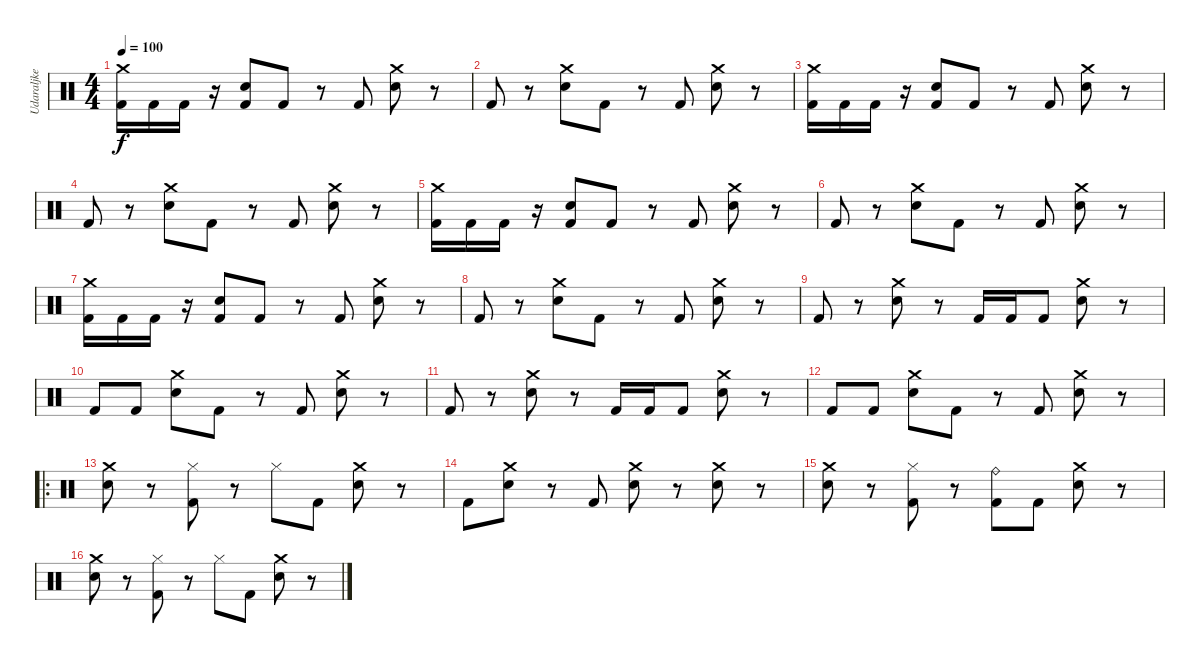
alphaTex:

\track ("Udaraljke" "Udaraljke") {instrument percussion}
\staff {score}
\articulation defaults
\ts (4 4)
\tempo 100
\clef neutral
\ks c
("Crash medium (hit)" "Kick (hit) 2").16{dy f} "Kick (hit) 2".16 "Kick (hit) 2".16 r.16 ("Snare (hit) 2" "Kick (hit) 2").8 "Kick (hit) 2".8 r.8 "Kick (hit) 2".8 ("Crash medium (hit)" "Snare (hit) 2").8 r.8 |
"Kick (hit) 2".8 r.8 ("Crash medium (hit)" "Snare (hit) 2").8 "Kick (hit) 2".8 r.8 "Kick (hit) 2".8 ("Crash medium (hit)" "Snare (hit) 2").8 r.8 |
("Crash medium (hit)" "Kick (hit) 2").16 "Kick (hit) 2".16 "Kick (hit) 2".16 r.16 ("Snare (hit) 2" "Kick (hit) 2").8 "Kick (hit) 2".8 r.8 "Kick (hit) 2".8 ("Crash medium (hit)" "Snare (hit) 2").8 r.8 |
"Kick (hit) 2".8 r.8 ("Crash medium (hit)" "Snare (hit) 2").8 "Kick (hit) 2".8 r.8 "Kick (hit) 2".8 ("Crash medium (hit)" "Snare (hit) 2").8 r.8 |
("Crash medium (hit)" "Kick (hit) 2").16 "Kick (hit) 2".16 "Kick (hit) 2".16 r.16 ("Snare (hit) 2" "Kick (hit) 2").8 "Kick (hit) 2".8 r.8 "Kick (hit) 2".8 ("Crash medium (hit)" "Snare (hit) 2").8 r.8 |
"Kick (hit) 2".8 r.8 ("Crash medium (hit)" "Snare (hit) 2").8 "Kick (hit) 2".8 r.8 "Kick (hit) 2".8 ("Crash medium (hit)" "Snare (hit) 2").8 r.8 |
("Crash medium (hit)" "Kick (hit) 2").16 "Kick (hit) 2".16 "Kick (hit) 2".16 r.16 ("Snare (hit) 2" "Kick (hit) 2").8 "Kick (hit) 2".8 r.8 "Kick (hit) 2".8 ("Crash medium (hit)" "Snare (hit) 2").8 r.8 |
"Kick (hit) 2".8 r.8 ("Crash medium (hit)" "Snare (hit) 2").8 "Kick (hit) 2".8 r.8 "Kick (hit) 2".8 ("Crash medium (hit)" "Snare (hit) 2").8 r.8 |
"Kick (hit) 2".8 r.8 ("Crash medium (hit)" "Snare (hit) 2").8 r.8 "Kick (hit) 2".16 "Kick (hit) 2".16 "Kick (hit) 2".8 ("Crash medium (hit)" "Snare (hit) 2").8 r.8 |
"Kick (hit) 2".8 "Kick (hit) 2".8 ("Crash medium (hit)" "Snare (hit) 2").8 "Kick (hit) 2".8 r.8 "Kick (hit) 2".8 ("Crash medium (hit)" "Snare (hit) 2").8 r.8 |
"Kick (hit) 2".8 r.8 ("Crash medium (hit)" "Snare (hit) 2").8 r.8 "Kick (hit) 2".16 "Kick (hit) 2".16 "Kick (hit) 2".8 ("Crash medium (hit)" "Snare (hit) 2").8 r.8 |
"Kick (hit) 2".8 "Kick (hit) 2".8 ("Crash medium (hit)" "Snare (hit) 2").8 "Kick (hit) 2".8 r.8 "Kick (hit) 2".8 ("Crash medium (hit)" "Snare (hit) 2").8 r.8 |
\ro
("Crash medium (hit)" "Snare (hit) 2").8 r.8 ("Hi-Hat (closed)" "Kick (hit) 2").8 r.8 "Hi-Hat (closed)".8 "Kick (hit) 2".8 ("Crash medium (hit)" "Snare (hit) 2").8 r.8 |
"Kick (hit) 2".8 ("Crash medium (hit)" "Snare (hit) 2").8 r.8 "Kick (hit) 2".8 ("Snare (hit) 2" "Crash medium (hit)").8 r.8 ("Crash medium (hit)" "Snare (hit) 2").8 r.8 |
("Crash medium (hit)" "Snare (hit) 2").8 r.8 ("Hi-Hat (closed)" "Kick (hit) 2").8 r.8 ("Ride (bell)" "Kick (hit) 2").8 "Kick (hit) 2".8 ("Crash medium (hit)" "Snare (hit) 2").8 r.8 |
("Crash medium (hit)" "Snare (hit) 2").8 r.8 ("Hi-Hat (closed)" "Kick (hit) 2").8 r.8 "Hi-Hat (closed)".8 "Kick (hit) 2".8 ("Crash medium (hit)" "Snare (hit) 2").8 r.8
